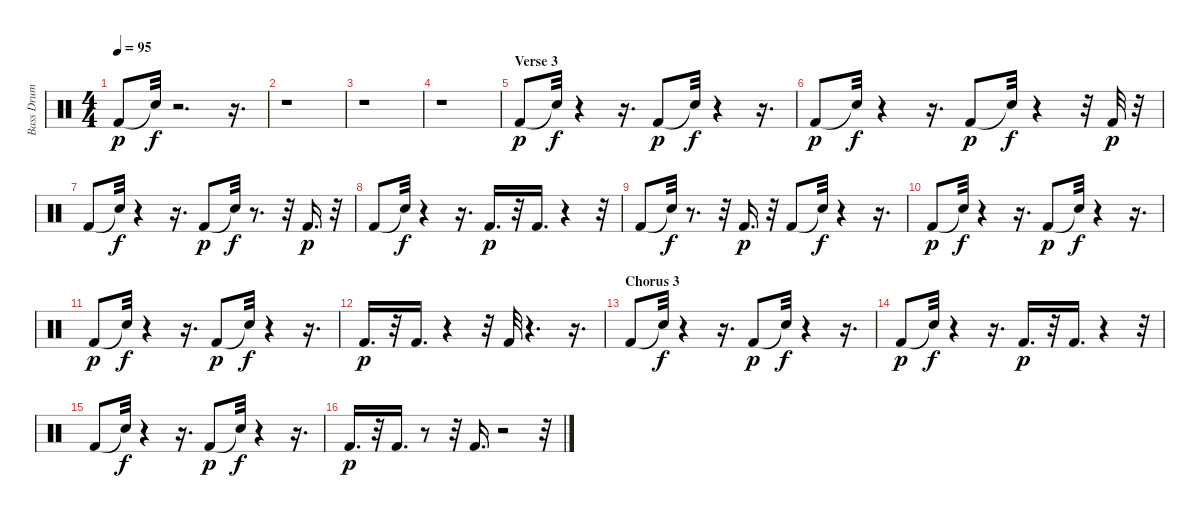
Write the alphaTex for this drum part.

\track ("Bass Drum" "Bass Drum") {instrument percussion}
\staff {score}
\articulation defaults
\ts (4 4)
\tempo 95
\clef neutral
\ks c "Kick (hit) 2".8{dy p} "Snare (hit)"{t}.32{dy f}
r.2{d} r.16{d} |
r.1 |
r.1 |
r.1 |
\section ("" "Verse 3")
"Kick (hit) 2".8{dy p} "Snare (hit)"{t}.32{dy f} r.4 r.16{d} "Kick (hit) 2".8{dy p} "Snare (hit)"{t}.32{dy f} r.4 r.16{d} |
"Kick (hit) 2".8{dy p} "Snare (hit)"{t}.32{dy f} r.4 r.16{d} "Kick (hit) 2".8{dy p} "Snare (hit)"{t}.32{dy f} r.4 r.32 "Kick (hit) 2".32{dy p} r.32 |
"Kick (hit) 2".8 "Snare (hit)"{t}.32{dy f} r.4 r.16{d} "Kick (hit) 2".8{dy p} "Snare (hit)"{t}.32{dy f} r.8{d} r.32 "Kick (hit) 2".16{d dy p} r.32 |
"Kick (hit) 2".8 "Snare (hit)"{t}.32{dy f} r.4 r.16{d} "Kick (hit) 2".16{d dy p} r.32 "Kick (hit) 2".16{d} r.4 r.32 |
"Kick (hit) 2".8 "Snare (hit)"{t}.32{dy f} r.8{d} r.32 "Kick (hit) 2".16{d dy p} r.32 "Kick (hit) 2".8 "Snare (hit)"{t}.32{dy f} r.4 r.16{d} |
"Kick (hit) 2".8{dy p} "Snare (hit)"{t}.32{dy f} r.4 r.16{d} "Kick (hit) 2".8{dy p} "Snare (hit)"{t}.32{dy f} r.4 r.16{d} |
"Kick (hit) 2".8{dy p} "Snare (hit)"{t}.32{dy f} r.4 r.16{d} "Kick (hit) 2".8{dy p} "Snare (hit)"{t}.32{dy f} r.4 r.16{d} |
"Kick (hit) 2".16{d dy p} r.32 "Kick (hit) 2".16{d} r.4 r.32 "Kick (hit) 2".32 r.4{d} r.16{d} |
\section ("" "Chorus 3")
"Kick (hit) 2".8 "Snare (hit)"{t}.32{dy f} r.4 r.16{d} "Kick (hit) 2".8{dy p} "Snare (hit)"{t}.32{dy f} r.4 r.16{d} |
"Kick (hit) 2".8{dy p} "Snare (hit)"{t}.32{dy f} r.4 r.16{d} "Kick (hit) 2".16{d dy p} r.32 "Kick (hit) 2".16{d} r.4 r.32 |
"Kick (hit) 2".8 "Snare (hit)"{t}.32{dy f} r.4 r.16{d} "Kick (hit) 2".8{dy p} "Snare (hit)"{t}.32{dy f} r.4 r.16{d} |
"Kick (hit) 2".16{d dy p} r.32 "Kick (hit) 2".16{d} r.8 r.32 "Kick (hit) 2".16{d} r.2 r.32
